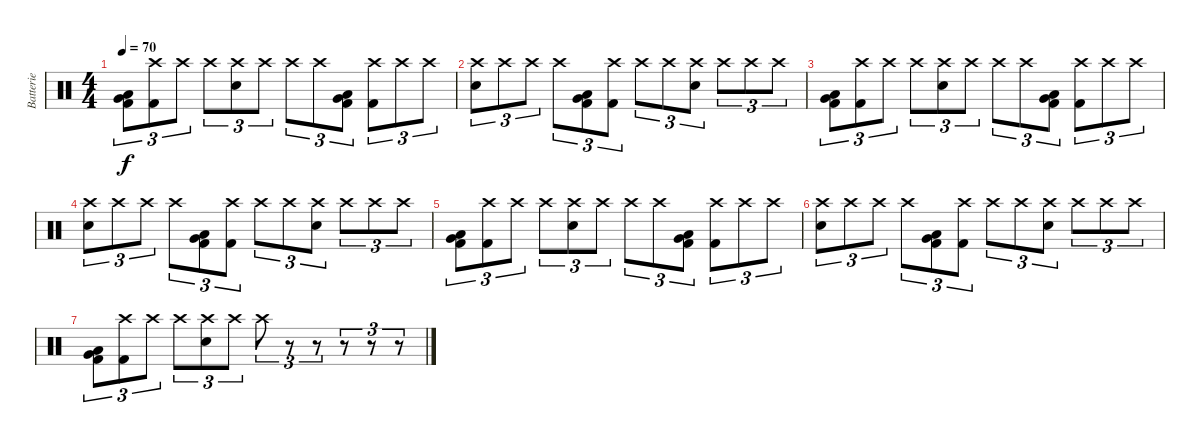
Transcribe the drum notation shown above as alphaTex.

\track ("Batterie" "Batterie") {instrument percussion}
\staff {score}
\articulation defaults
\ts (4 4)
\tempo 70
\clef neutral
\ks c
("Kick (hit) 2" "Very Low Tom (hit)" "Low Tom (hit)").8{tu (3 2) dy f} ("Crash high (hit)" "Kick (hit) 2").8{tu (3 2)} "Crash high (hit)".8{tu (3 2)} "Crash high (hit)".8{tu (3 2)} ("Crash high (hit)" "Electric Snare (hit)").8{tu (3 2)} "Crash high (hit)".8{tu (3 2)} "Crash high (hit)".8{tu (3 2)} "Crash high (hit)".8{tu (3 2)} ("Low Tom (hit)" "Kick (hit) 2" "Very Low Tom (hit)").8{tu (3 2)} ("Crash high (hit)" "Kick (hit) 2").8{tu (3 2)} "Crash high (hit)".8{tu (3 2)} "Crash high (hit)".8{tu (3 2)} |
("Crash high (hit)" "Electric Snare (hit)").8{tu (3 2)} "Crash high (hit)".8{tu (3 2)} "Crash high (hit)".8{tu (3 2)} "Crash high (hit)".8{tu (3 2)} ("Low Tom (hit)" "Very Low Tom (hit)" "Kick (hit) 2").8{tu (3 2)} ("Crash high (hit)" "Kick (hit) 2").8{tu (3 2)} "Crash high (hit)".8{tu (3 2)} "Crash high (hit)".8{tu (3 2)} ("Crash high (hit)" "Electric Snare (hit)").8{tu (3 2)} "Crash high (hit)".8{tu (3 2)} "Crash high (hit)".8{tu (3 2)} "Crash high (hit)".8{tu (3 2)} |
("Kick (hit) 2" "Very Low Tom (hit)" "Low Tom (hit)").8{tu (3 2)} ("Crash high (hit)" "Kick (hit) 2").8{tu (3 2)} "Crash high (hit)".8{tu (3 2)} "Crash high (hit)".8{tu (3 2)} ("Crash high (hit)" "Electric Snare (hit)").8{tu (3 2)} "Crash high (hit)".8{tu (3 2)} "Crash high (hit)".8{tu (3 2)} "Crash high (hit)".8{tu (3 2)} ("Low Tom (hit)" "Kick (hit) 2" "Very Low Tom (hit)").8{tu (3 2)} ("Crash high (hit)" "Kick (hit) 2").8{tu (3 2)} "Crash high (hit)".8{tu (3 2)} "Crash high (hit)".8{tu (3 2)} |
("Crash high (hit)" "Electric Snare (hit)").8{tu (3 2)} "Crash high (hit)".8{tu (3 2)} "Crash high (hit)".8{tu (3 2)} "Crash high (hit)".8{tu (3 2)} ("Low Tom (hit)" "Very Low Tom (hit)" "Kick (hit) 2").8{tu (3 2)} ("Crash high (hit)" "Kick (hit) 2").8{tu (3 2)} "Crash high (hit)".8{tu (3 2)} "Crash high (hit)".8{tu (3 2)} ("Crash high (hit)" "Electric Snare (hit)").8{tu (3 2)} "Crash high (hit)".8{tu (3 2)} "Crash high (hit)".8{tu (3 2)} "Crash high (hit)".8{tu (3 2)} |
("Kick (hit) 2" "Very Low Tom (hit)" "Low Tom (hit)").8{tu (3 2)} ("Crash high (hit)" "Kick (hit) 2").8{tu (3 2)} "Crash high (hit)".8{tu (3 2)} "Crash high (hit)".8{tu (3 2)} ("Crash high (hit)" "Electric Snare (hit)").8{tu (3 2)} "Crash high (hit)".8{tu (3 2)} "Crash high (hit)".8{tu (3 2)} "Crash high (hit)".8{tu (3 2)} ("Low Tom (hit)" "Kick (hit) 2" "Very Low Tom (hit)").8{tu (3 2)} ("Crash high (hit)" "Kick (hit) 2").8{tu (3 2)} "Crash high (hit)".8{tu (3 2)} "Crash high (hit)".8{tu (3 2)} |
("Crash high (hit)" "Electric Snare (hit)").8{tu (3 2)} "Crash high (hit)".8{tu (3 2)} "Crash high (hit)".8{tu (3 2)} "Crash high (hit)".8{tu (3 2)} ("Low Tom (hit)" "Very Low Tom (hit)" "Kick (hit) 2").8{tu (3 2)} ("Crash high (hit)" "Kick (hit) 2").8{tu (3 2)} "Crash high (hit)".8{tu (3 2)} "Crash high (hit)".8{tu (3 2)} ("Crash high (hit)" "Electric Snare (hit)").8{tu (3 2)} "Crash high (hit)".8{tu (3 2)} "Crash high (hit)".8{tu (3 2)} "Crash high (hit)".8{tu (3 2)} |
("Kick (hit) 2" "Very Low Tom (hit)" "Low Tom (hit)").8{tu (3 2)} ("Crash high (hit)" "Kick (hit) 2").8{tu (3 2)} "Crash high (hit)".8{tu (3 2)} "Crash high (hit)".8{tu (3 2)} ("Crash high (hit)" "Electric Snare (hit)").8{tu (3 2)} "Crash high (hit)".8{tu (3 2)} "Crash high (hit)".8{tu (3 2)} r.8{tu (3 2)} r.8{tu (3 2)} r.8{tu (3 2)} r.8{tu (3 2)} r.8{tu (3 2)}
